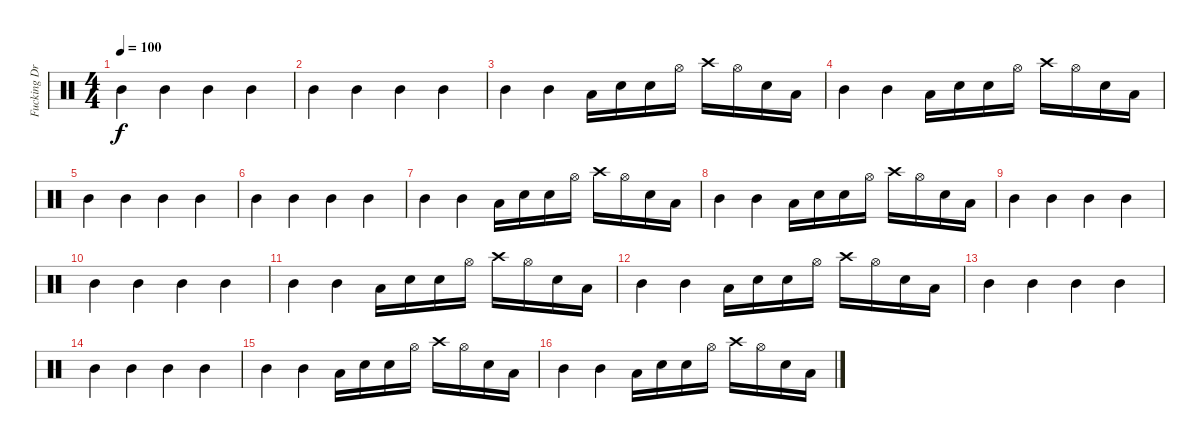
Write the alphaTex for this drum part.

\track ("Fucking Drums Thats It" "Fucking Dr") {instrument percussion}
\staff {score}
\articulation defaults
\ts (4 4)
\tempo 100
\clef neutral
\ks c "Mid Tom (hit)".4{dy f} "Mid Tom (hit)".4 "Mid Tom (hit)".4 "Mid Tom (hit)".4
|
"Mid Tom (hit)".4 "Mid Tom (hit)".4 "Mid Tom (hit)".4 "Mid Tom (hit)".4 |
"Mid Tom (hit)".4 "Mid Tom (hit)".4 "Low Tom (hit)".16 "Snare (hit) 2".16 "Snare (hit) 2".16 "Hi-Hat (open)".16 "Crash high (hit)".16 "Hi-Hat (open)".16 "Snare (hit) 2".16 "Low Tom (hit)".16 |
"Mid Tom (hit)".4 "Mid Tom (hit)".4 "Low Tom (hit)".16 "Snare (hit) 2".16 "Snare (hit) 2".16 "Hi-Hat (open)".16 "Crash high (hit)".16 "Hi-Hat (open)".16 "Snare (hit) 2".16 "Low Tom (hit)".16 |
"Mid Tom (hit)".4 "Mid Tom (hit)".4 "Mid Tom (hit)".4 "Mid Tom (hit)".4 |
"Mid Tom (hit)".4 "Mid Tom (hit)".4 "Mid Tom (hit)".4 "Mid Tom (hit)".4 |
"Mid Tom (hit)".4 "Mid Tom (hit)".4 "Low Tom (hit)".16 "Snare (hit) 2".16 "Snare (hit) 2".16 "Hi-Hat (open)".16 "Crash high (hit)".16 "Hi-Hat (open)".16 "Snare (hit) 2".16 "Low Tom (hit)".16 |
"Mid Tom (hit)".4 "Mid Tom (hit)".4 "Low Tom (hit)".16 "Snare (hit) 2".16 "Snare (hit) 2".16 "Hi-Hat (open)".16 "Crash high (hit)".16 "Hi-Hat (open)".16 "Snare (hit) 2".16 "Low Tom (hit)".16 |
"Mid Tom (hit)".4 "Mid Tom (hit)".4 "Mid Tom (hit)".4 "Mid Tom (hit)".4 |
"Mid Tom (hit)".4 "Mid Tom (hit)".4 "Mid Tom (hit)".4 "Mid Tom (hit)".4 |
"Mid Tom (hit)".4 "Mid Tom (hit)".4 "Low Tom (hit)".16 "Snare (hit) 2".16 "Snare (hit) 2".16 "Hi-Hat (open)".16 "Crash high (hit)".16 "Hi-Hat (open)".16 "Snare (hit) 2".16 "Low Tom (hit)".16 |
"Mid Tom (hit)".4 "Mid Tom (hit)".4 "Low Tom (hit)".16 "Snare (hit) 2".16 "Snare (hit) 2".16 "Hi-Hat (open)".16 "Crash high (hit)".16 "Hi-Hat (open)".16 "Snare (hit) 2".16 "Low Tom (hit)".16 |
"Mid Tom (hit)".4 "Mid Tom (hit)".4 "Mid Tom (hit)".4 "Mid Tom (hit)".4 |
"Mid Tom (hit)".4 "Mid Tom (hit)".4 "Mid Tom (hit)".4 "Mid Tom (hit)".4 |
"Mid Tom (hit)".4 "Mid Tom (hit)".4 "Low Tom (hit)".16 "Snare (hit) 2".16 "Snare (hit) 2".16 "Hi-Hat (open)".16 "Crash high (hit)".16 "Hi-Hat (open)".16 "Snare (hit) 2".16 "Low Tom (hit)".16 |
"Mid Tom (hit)".4 "Mid Tom (hit)".4 "Low Tom (hit)".16 "Snare (hit) 2".16 "Snare (hit) 2".16 "Hi-Hat (open)".16 "Crash high (hit)".16 "Hi-Hat (open)".16 "Snare (hit) 2".16 "Low Tom (hit)".16
